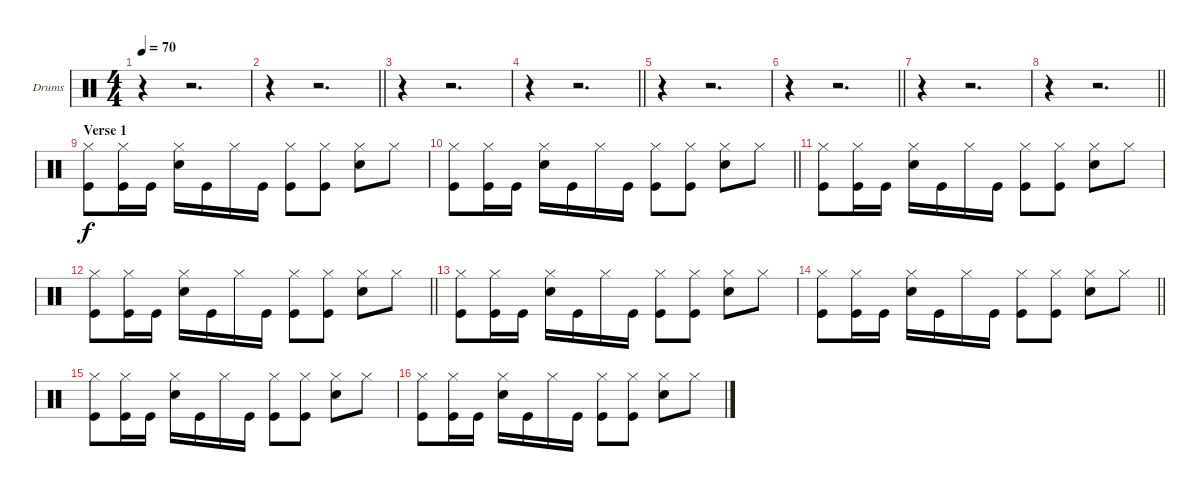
\bracketExtendMode groupsimilarinstruments
\firstSystemTrackNameOrientation horizontal
\otherSystemsTrackNameOrientation horizontal
\track ("Drumkit" "Drums") {instrument percussion}
\staff {score}
\articulation defaults
\ts (4 4)
\beaming (8 2 2 2 2)
\tempo 70
\clef neutral
\ks c
r.4{dy f} r.2{d} |
\barLineRight lightlight
r.4 r.2{d} |
r.4 r.2{d} |
\barLineRight lightlight
r.4 r.2{d} |
r.4 r.2{d} |
\barLineRight lightlight
r.4 r.2{d} |
r.4 r.2{d} |
\barLineRight lightlight
r.4 r.2{d} |
\section ("" "Verse 1")
("Hi-Hat (closed)" "Kick (hit)").8 ("Hi-Hat (closed)" "Kick (hit)").16 "Kick (hit)".16 ("Hi-Hat (closed)" "Snare (hit) 2").16 "Kick (hit)".16 "Hi-Hat (closed)".16 "Kick (hit)".16 ("Hi-Hat (closed)" "Kick (hit)").8 ("Hi-Hat (closed)" "Kick (hit)").8 ("Hi-Hat (closed)" "Snare (hit) 2").8 "Hi-Hat (closed)".8 |
\barLineRight lightlight
("Hi-Hat (closed)" "Kick (hit)").8 ("Hi-Hat (closed)" "Kick (hit)").16 "Kick (hit)".16 ("Hi-Hat (closed)" "Snare (hit) 2").16 "Kick (hit)".16 "Hi-Hat (closed)".16 "Kick (hit)".16 ("Hi-Hat (closed)" "Kick (hit)").8 ("Hi-Hat (closed)" "Kick (hit)").8 ("Hi-Hat (closed)" "Snare (hit) 2").8 "Hi-Hat (closed)".8 |
("Hi-Hat (closed)" "Kick (hit)").8 ("Hi-Hat (closed)" "Kick (hit)").16 "Kick (hit)".16 ("Hi-Hat (closed)" "Snare (hit) 2").16 "Kick (hit)".16 "Hi-Hat (closed)".16 "Kick (hit)".16 ("Hi-Hat (closed)" "Kick (hit)").8 ("Hi-Hat (closed)" "Kick (hit)").8 ("Hi-Hat (closed)" "Snare (hit) 2").8 "Hi-Hat (closed)".8 |
\barLineRight lightlight
("Hi-Hat (closed)" "Kick (hit)").8 ("Hi-Hat (closed)" "Kick (hit)").16 "Kick (hit)".16 ("Hi-Hat (closed)" "Snare (hit) 2").16 "Kick (hit)".16 "Hi-Hat (closed)".16 "Kick (hit)".16 ("Hi-Hat (closed)" "Kick (hit)").8 ("Hi-Hat (closed)" "Kick (hit)").8 ("Hi-Hat (closed)" "Snare (hit) 2").8 "Hi-Hat (closed)".8 |
("Hi-Hat (closed)" "Kick (hit)").8 ("Hi-Hat (closed)" "Kick (hit)").16 "Kick (hit)".16 ("Hi-Hat (closed)" "Snare (hit) 2").16 "Kick (hit)".16 "Hi-Hat (closed)".16 "Kick (hit)".16 ("Hi-Hat (closed)" "Kick (hit)").8 ("Hi-Hat (closed)" "Kick (hit)").8 ("Hi-Hat (closed)" "Snare (hit) 2").8 "Hi-Hat (closed)".8 |
\barLineRight lightlight
("Hi-Hat (closed)" "Kick (hit)").8 ("Hi-Hat (closed)" "Kick (hit)").16 "Kick (hit)".16 ("Hi-Hat (closed)" "Snare (hit) 2").16 "Kick (hit)".16 "Hi-Hat (closed)".16 "Kick (hit)".16 ("Hi-Hat (closed)" "Kick (hit)").8 ("Hi-Hat (closed)" "Kick (hit)").8 ("Hi-Hat (closed)" "Snare (hit) 2").8 "Hi-Hat (closed)".8 |
("Hi-Hat (closed)" "Kick (hit)").8 ("Hi-Hat (closed)" "Kick (hit)").16 "Kick (hit)".16 ("Hi-Hat (closed)" "Snare (hit) 2").16 "Kick (hit)".16 "Hi-Hat (closed)".16 "Kick (hit)".16 ("Hi-Hat (closed)" "Kick (hit)").8 ("Hi-Hat (closed)" "Kick (hit)").8 ("Hi-Hat (closed)" "Snare (hit) 2").8 "Hi-Hat (closed)".8 |
("Hi-Hat (closed)" "Kick (hit)").8 ("Hi-Hat (closed)" "Kick (hit)").16 "Kick (hit)".16 ("Hi-Hat (closed)" "Snare (hit) 2").16 "Kick (hit)".16 "Hi-Hat (closed)".16 "Kick (hit)".16 ("Hi-Hat (closed)" "Kick (hit)").8 ("Hi-Hat (closed)" "Kick (hit)").8 ("Hi-Hat (closed)" "Snare (hit) 2").8 "Hi-Hat (closed)".8
